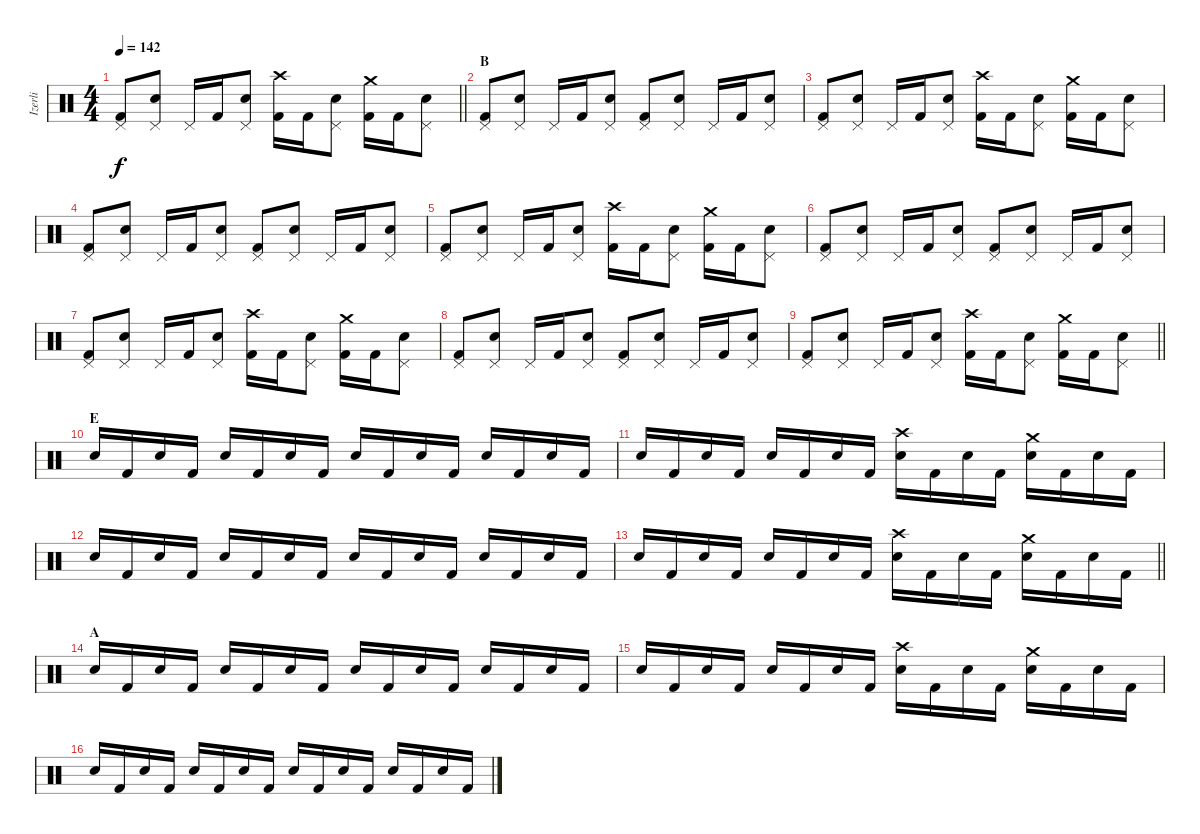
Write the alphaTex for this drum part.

\track ("Izerli" "Izerli") {instrument percussion}
\staff {score}
\articulation defaults
\ts (4 4)
\tempo 142
\clef neutral
\barLineRight lightlight
\ks c
("Pedal Hi-Hat (hit)" "Kick (hit) 2").8{dy f} ("Pedal Hi-Hat (hit)" "Electric Snare (hit)").8 "Pedal Hi-Hat (hit)".16 "Kick (hit) 2".16 ("Pedal Hi-Hat (hit)" "Electric Snare (hit)").8 ("Crash high (hit)" "Kick (hit) 2").16 "Kick (hit) 2".16 ("Pedal Hi-Hat (hit)" "Electric Snare (hit)").8 ("Crash medium (hit)" "Kick (hit) 2").16 "Kick (hit) 2".16 ("Pedal Hi-Hat (hit)" "Electric Snare (hit)").8 |
\section ("" "В")
("Pedal Hi-Hat (hit)" "Kick (hit) 2").8 ("Pedal Hi-Hat (hit)" "Electric Snare (hit)").8 "Pedal Hi-Hat (hit)".16 "Kick (hit) 2".16 ("Pedal Hi-Hat (hit)" "Electric Snare (hit)").8 ("Pedal Hi-Hat (hit)" "Kick (hit) 2").8 ("Pedal Hi-Hat (hit)" "Electric Snare (hit)").8 "Pedal Hi-Hat (hit)".16 "Kick (hit) 2".16 ("Pedal Hi-Hat (hit)" "Electric Snare (hit)").8 |
("Pedal Hi-Hat (hit)" "Kick (hit) 2").8 ("Pedal Hi-Hat (hit)" "Electric Snare (hit)").8 "Pedal Hi-Hat (hit)".16 "Kick (hit) 2".16 ("Pedal Hi-Hat (hit)" "Electric Snare (hit)").8 ("Crash high (hit)" "Kick (hit) 2").16 "Kick (hit) 2".16 ("Pedal Hi-Hat (hit)" "Electric Snare (hit)").8 ("Crash medium (hit)" "Kick (hit) 2").16 "Kick (hit) 2".16 ("Pedal Hi-Hat (hit)" "Electric Snare (hit)").8 |
("Pedal Hi-Hat (hit)" "Kick (hit) 2").8 ("Pedal Hi-Hat (hit)" "Electric Snare (hit)").8 "Pedal Hi-Hat (hit)".16 "Kick (hit) 2".16 ("Pedal Hi-Hat (hit)" "Electric Snare (hit)").8 ("Pedal Hi-Hat (hit)" "Kick (hit) 2").8 ("Pedal Hi-Hat (hit)" "Electric Snare (hit)").8 "Pedal Hi-Hat (hit)".16 "Kick (hit) 2".16 ("Pedal Hi-Hat (hit)" "Electric Snare (hit)").8 |
("Pedal Hi-Hat (hit)" "Kick (hit) 2").8 ("Pedal Hi-Hat (hit)" "Electric Snare (hit)").8 "Pedal Hi-Hat (hit)".16 "Kick (hit) 2".16 ("Pedal Hi-Hat (hit)" "Electric Snare (hit)").8 ("Crash high (hit)" "Kick (hit) 2").16 "Kick (hit) 2".16 ("Pedal Hi-Hat (hit)" "Electric Snare (hit)").8 ("Crash medium (hit)" "Kick (hit) 2").16 "Kick (hit) 2".16 ("Pedal Hi-Hat (hit)" "Electric Snare (hit)").8 |
("Pedal Hi-Hat (hit)" "Kick (hit) 2").8 ("Pedal Hi-Hat (hit)" "Electric Snare (hit)").8 "Pedal Hi-Hat (hit)".16 "Kick (hit) 2".16 ("Pedal Hi-Hat (hit)" "Electric Snare (hit)").8 ("Pedal Hi-Hat (hit)" "Kick (hit) 2").8 ("Pedal Hi-Hat (hit)" "Electric Snare (hit)").8 "Pedal Hi-Hat (hit)".16 "Kick (hit) 2".16 ("Pedal Hi-Hat (hit)" "Electric Snare (hit)").8 |
("Pedal Hi-Hat (hit)" "Kick (hit) 2").8 ("Pedal Hi-Hat (hit)" "Electric Snare (hit)").8 "Pedal Hi-Hat (hit)".16 "Kick (hit) 2".16 ("Pedal Hi-Hat (hit)" "Electric Snare (hit)").8 ("Crash high (hit)" "Kick (hit) 2").16 "Kick (hit) 2".16 ("Pedal Hi-Hat (hit)" "Electric Snare (hit)").8 ("Crash medium (hit)" "Kick (hit) 2").16 "Kick (hit) 2".16 ("Pedal Hi-Hat (hit)" "Electric Snare (hit)").8 |
("Pedal Hi-Hat (hit)" "Kick (hit) 2").8 ("Pedal Hi-Hat (hit)" "Electric Snare (hit)").8 "Pedal Hi-Hat (hit)".16 "Kick (hit) 2".16 ("Pedal Hi-Hat (hit)" "Electric Snare (hit)").8 ("Pedal Hi-Hat (hit)" "Kick (hit) 2").8 ("Pedal Hi-Hat (hit)" "Electric Snare (hit)").8 "Pedal Hi-Hat (hit)".16 "Kick (hit) 2".16 ("Pedal Hi-Hat (hit)" "Electric Snare (hit)").8 |
\barLineRight lightlight
("Pedal Hi-Hat (hit)" "Kick (hit) 2").8 ("Pedal Hi-Hat (hit)" "Electric Snare (hit)").8 "Pedal Hi-Hat (hit)".16 "Kick (hit) 2".16 ("Pedal Hi-Hat (hit)" "Electric Snare (hit)").8 ("Crash high (hit)" "Kick (hit) 2").16 "Kick (hit) 2".16 ("Pedal Hi-Hat (hit)" "Electric Snare (hit)").8 ("Crash medium (hit)" "Kick (hit) 2").16 "Kick (hit) 2".16 ("Pedal Hi-Hat (hit)" "Electric Snare (hit)").8 |
\section ("" "E")
"Electric Snare (hit)".16 "Kick (hit) 2".16 "Electric Snare (hit)".16 "Kick (hit) 2".16 "Electric Snare (hit)".16 "Kick (hit) 2".16 "Electric Snare (hit)".16 "Kick (hit) 2".16 "Electric Snare (hit)".16 "Kick (hit) 2".16 "Electric Snare (hit)".16 "Kick (hit) 2".16 "Electric Snare (hit)".16 "Kick (hit) 2".16 "Electric Snare (hit)".16 "Kick (hit) 2".16 |
"Electric Snare (hit)".16 "Kick (hit) 2".16 "Electric Snare (hit)".16 "Kick (hit) 2".16 "Electric Snare (hit)".16 "Kick (hit) 2".16 "Electric Snare (hit)".16 "Kick (hit) 2".16 ("Crash high (hit)" "Electric Snare (hit)").16 "Kick (hit) 2".16 "Electric Snare (hit)".16 "Kick (hit) 2".16 ("Crash medium (hit)" "Electric Snare (hit)").16 "Kick (hit) 2".16 "Electric Snare (hit)".16 "Kick (hit) 2".16 |
"Electric Snare (hit)".16 "Kick (hit) 2".16 "Electric Snare (hit)".16 "Kick (hit) 2".16 "Electric Snare (hit)".16 "Kick (hit) 2".16 "Electric Snare (hit)".16 "Kick (hit) 2".16 "Electric Snare (hit)".16 "Kick (hit) 2".16 "Electric Snare (hit)".16 "Kick (hit) 2".16 "Electric Snare (hit)".16 "Kick (hit) 2".16 "Electric Snare (hit)".16 "Kick (hit) 2".16 |
\barLineRight lightlight "Electric Snare (hit)".16 "Kick (hit) 2".16 "Electric Snare (hit)".16 "Kick (hit) 2".16 "Electric Snare (hit)".16 "Kick (hit) 2".16 "Electric Snare (hit)".16 "Kick (hit) 2".16
("Crash high (hit)" "Electric Snare (hit)").16 "Kick (hit) 2".16 "Electric Snare (hit)".16 "Kick (hit) 2".16 ("Crash medium (hit)" "Electric Snare (hit)").16 "Kick (hit) 2".16 "Electric Snare (hit)".16 "Kick (hit) 2".16 |
\section ("" "A")
"Electric Snare (hit)".16 "Kick (hit) 2".16 "Electric Snare (hit)".16 "Kick (hit) 2".16 "Electric Snare (hit)".16 "Kick (hit) 2".16 "Electric Snare (hit)".16 "Kick (hit) 2".16 "Electric Snare (hit)".16 "Kick (hit) 2".16 "Electric Snare (hit)".16 "Kick (hit) 2".16 "Electric Snare (hit)".16 "Kick (hit) 2".16 "Electric Snare (hit)".16 "Kick (hit) 2".16 |
"Electric Snare (hit)".16 "Kick (hit) 2".16 "Electric Snare (hit)".16 "Kick (hit) 2".16 "Electric Snare (hit)".16 "Kick (hit) 2".16 "Electric Snare (hit)".16 "Kick (hit) 2".16 ("Crash high (hit)" "Electric Snare (hit)").16 "Kick (hit) 2".16 "Electric Snare (hit)".16 "Kick (hit) 2".16 ("Crash medium (hit)" "Electric Snare (hit)").16 "Kick (hit) 2".16 "Electric Snare (hit)".16 "Kick (hit) 2".16 |
"Electric Snare (hit)".16 "Kick (hit) 2".16 "Electric Snare (hit)".16 "Kick (hit) 2".16 "Electric Snare (hit)".16 "Kick (hit) 2".16 "Electric Snare (hit)".16 "Kick (hit) 2".16 "Electric Snare (hit)".16 "Kick (hit) 2".16 "Electric Snare (hit)".16 "Kick (hit) 2".16 "Electric Snare (hit)".16 "Kick (hit) 2".16 "Electric Snare (hit)".16 "Kick (hit) 2".16
